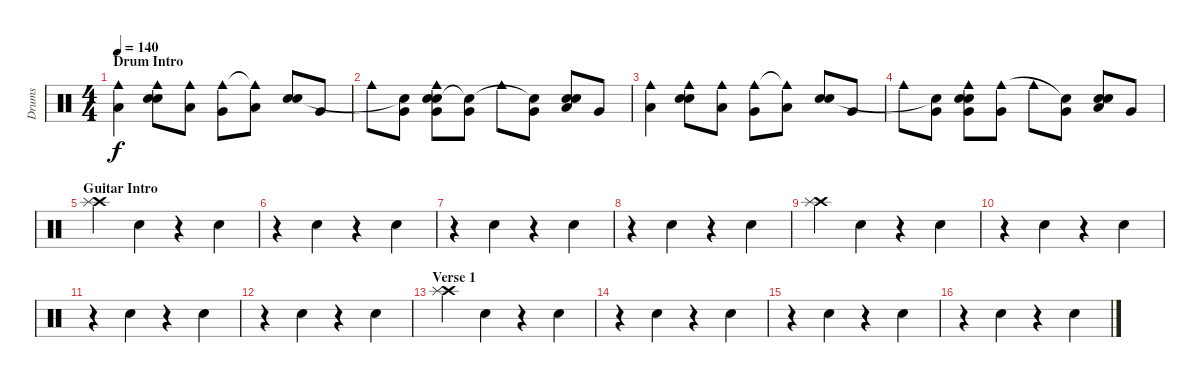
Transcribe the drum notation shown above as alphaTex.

\track ("Drums" "Drums") {instrument percussion}
\staff {score}
\articulation defaults
\ts (4 4)
\section ("" "Drum Intro")
\tempo 140
\clef neutral
\ks c
("Low Tom (hit)" "Cowbell medium (hit)").4{dy f} ("Snare (hit) 2" "Electric Snare (hit)" "Cowbell medium (hit)").8 ("Low Tom (hit)" "Cowbell medium (hit)").8 ("Very Low Tom (hit)" "Cowbell medium (hit)").8 ("Low Tom (hit)" "Cowbell medium (hit)"{t}).8 ("Snare (hit) 2" "Electric Snare (hit)").8 "Very Low Tom (hit)".8 |
"Cowbell medium (hit)".8 ("Very Low Tom (hit)" "Snare (hit)"{t}).8 ("Snare (hit) 2" "Electric Snare (hit)" "Very Low Tom (hit)" "Cowbell medium (hit)").8 ("Very Low Tom (hit)" "Snare (hit)"{t}).8 "Cowbell medium (hit)".8 ("Very Low Tom (hit)" "Snare (hit)"{t}).8 ("Snare (hit) 2" "Electric Snare (hit)" "Low Tom (hit)").8 "Very Low Tom (hit)".8 |
("Low Tom (hit)" "Cowbell medium (hit)").4 ("Snare (hit) 2" "Electric Snare (hit)" "Cowbell medium (hit)").8 ("Low Tom (hit)" "Cowbell medium (hit)").8 ("Very Low Tom (hit)" "Cowbell medium (hit)").8 ("Low Tom (hit)" "Cowbell medium (hit)"{t}).8 ("Snare (hit) 2" "Electric Snare (hit)").8 "Very Low Tom (hit)".8 |
"Cowbell medium (hit)".8 ("Very Low Tom (hit)" "Snare (hit)"{t}).8 ("Snare (hit) 2" "Electric Snare (hit)" "Very Low Tom (hit)" "Cowbell medium (hit)").8 ("Very Low Tom (hit)" "Cowbell medium (hit)").8 "Cowbell medium (hit)".8 ("Very Low Tom (hit)" "Snare (hit)"{t}).8 ("Snare (hit) 2" "Electric Snare (hit)" "Low Tom (hit)").8 "Very Low Tom (hit)".8 |
\section ("" "Guitar Intro")
("Crash high (hit)" "Splash (hit)").4 "Snare (hit) 2".4 r.4 "Snare (hit) 2".4 |
r.4 "Snare (hit) 2".4 r.4 "Snare (hit) 2".4 |
r.4 "Snare (hit) 2".4 r.4 "Snare (hit) 2".4 |
r.4 "Snare (hit) 2".4 r.4 "Snare (hit) 2".4 |
("Crash high (hit)" "Splash (hit)").4 "Snare (hit) 2".4 r.4 "Snare (hit) 2".4 |
r.4 "Snare (hit) 2".4 r.4 "Snare (hit) 2".4 |
r.4 "Snare (hit) 2".4 r.4 "Snare (hit) 2".4 |
r.4 "Snare (hit) 2".4 r.4 "Snare (hit) 2".4 |
\section ("" "Verse 1")
("Crash high (hit)" "Splash (hit)").4 "Snare (hit) 2".4 r.4 "Snare (hit) 2".4 |
r.4 "Snare (hit) 2".4 r.4 "Snare (hit) 2".4 |
r.4 "Snare (hit) 2".4 r.4 "Snare (hit) 2".4 |
r.4 "Snare (hit) 2".4 r.4 "Snare (hit) 2".4
